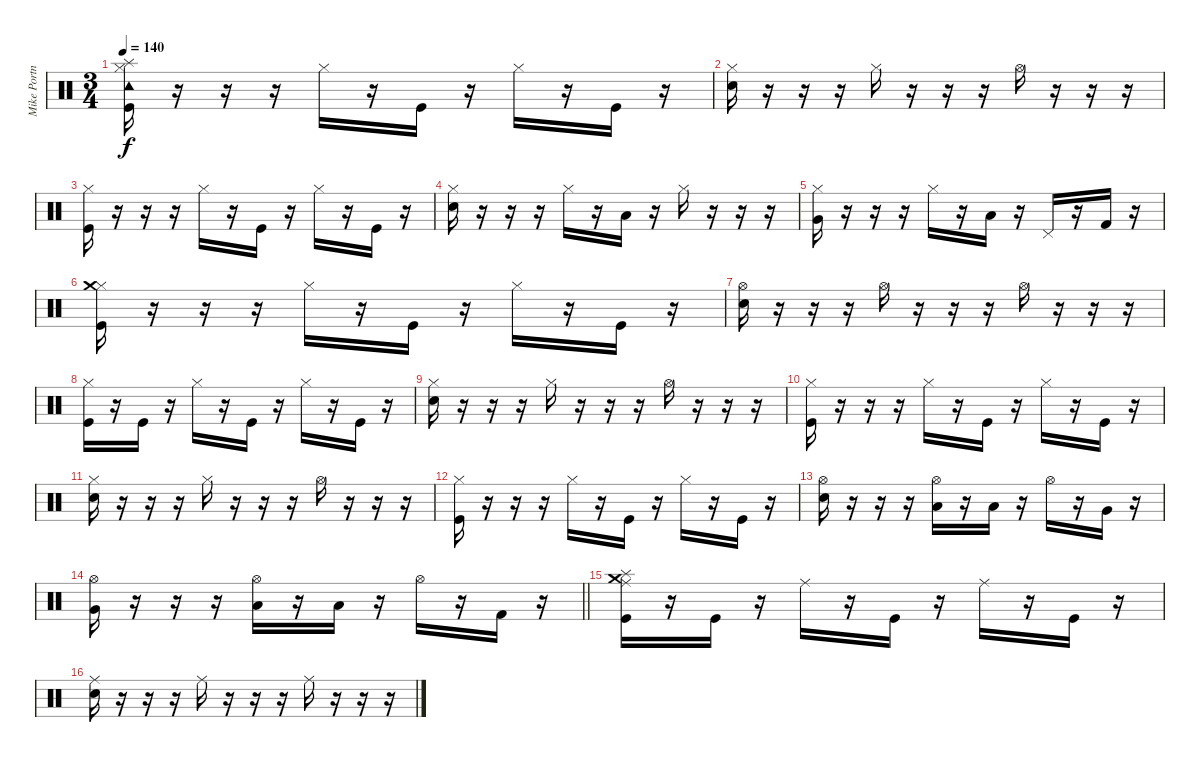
\track ("Mike Portnoy" "Mike Portn") {instrument percussion}
\staff {score}
\articulation defaults
\ts (3 4)
\tempo 140
\clef neutral
\ks c
("Kick (hit)" "Tambourine (hit)" "Splash (hit)" "Hi-Hat (closed)").16{dy f} r.16 r.16 r.16 "Hi-Hat (closed)".16 r.16 "Kick (hit)".16 r.16 "Hi-Hat (closed)".16 r.16 "Kick (hit)".16 r.16 |
("Electric Snare (hit)" "Hi-Hat (closed)").16 r.16 r.16 r.16 "Hi-Hat (closed)".16 r.16 r.16 r.16 "Hi-Hat (open)".16 r.16 r.16 r.16 |
("Kick (hit)" "Hi-Hat (closed)").16 r.16 r.16 r.16 "Hi-Hat (closed)".16 r.16 "Kick (hit)".16 r.16 "Hi-Hat (closed)".16 r.16 "Kick (hit)".16 r.16 |
("Electric Snare (hit)" "Hi-Hat (closed)").16 r.16 r.16 r.16 "Hi-Hat (closed)".16 r.16 "Low Tom (hit)".16 r.16 "Hi-Hat (closed)".16 r.16 r.16 r.16 |
("Very Low Tom (hit)" "Hi-Hat (closed)").16 r.16 r.16 r.16 "Hi-Hat (closed)".16 r.16 "Low Floor Tom (hit)".16 r.16 "Pedal Hi-Hat (hit)".16 r.16 "Kick (hit) 2".16 r.16 |
("Kick (hit)" "Hi-Hat (closed)" "Crash medium (hit)").16 r.16 r.16 r.16 "Hi-Hat (closed)".16 r.16 "Kick (hit)".16 r.16 "Hi-Hat (closed)".16 r.16 "Kick (hit)".16 r.16 |
("Electric Snare (hit)" "Hi-Hat (open)").16 r.16 r.16 r.16 "Hi-Hat (open)".16 r.16 r.16 r.16 "Hi-Hat (open)".16 r.16 r.16 r.16 |
("Kick (hit)" "Hi-Hat (closed)").16 r.16 "Kick (hit)".16 r.16 "Hi-Hat (closed)".16 r.16 "Kick (hit)".16 r.16 "Hi-Hat (closed)".16 r.16 "Kick (hit)".16 r.16 |
("Electric Snare (hit)" "Hi-Hat (closed)").16 r.16 r.16 r.16 "Hi-Hat (closed)".16 r.16 r.16 r.16 "Hi-Hat (open)".16 r.16 r.16 r.16 |
("Kick (hit)" "Hi-Hat (closed)").16 r.16 r.16 r.16 "Hi-Hat (closed)".16 r.16 "Kick (hit)".16 r.16 "Hi-Hat (closed)".16 r.16 "Kick (hit)".16 r.16 |
("Electric Snare (hit)" "Hi-Hat (closed)").16 r.16 r.16 r.16 "Hi-Hat (closed)".16 r.16 r.16 r.16 "Hi-Hat (open)".16 r.16 r.16 r.16 |
("Kick (hit)" "Hi-Hat (closed)").16 r.16 r.16 r.16 "Hi-Hat (closed)".16 r.16 "Kick (hit)".16 r.16 "Hi-Hat (closed)".16 r.16 "Kick (hit)".16 r.16 |
("Electric Snare (hit)" "Hi-Hat (open)").16 r.16 r.16 r.16 ("Low Tom (hit)" "Hi-Hat (open)").16 r.16 "Low Tom (hit)".16 r.16 "Hi-Hat (open)".16 r.16 "Very Low Tom (hit)".16 r.16 |
\barLineRight lightlight
("Very Low Tom (hit)" "Hi-Hat (open)").16 r.16 r.16 r.16 ("Low Floor Tom (hit)" "Hi-Hat (open)").16 r.16 "Low Floor Tom (hit)".16 r.16 "Hi-Hat (open)".16 r.16 "Kick (hit) 2".16 r.16 |
("Kick (hit)" "Crash medium (hit)" "Splash (hit)" "Ride (middle)").16 r.16 "Kick (hit)".16 r.16 "Ride (middle)".16 r.16 "Kick (hit)".16 r.16 "Ride (middle)".16 r.16 "Kick (hit)".16 r.16 |
("Electric Snare (hit)" "Ride (middle)").16 r.16 r.16 r.16 "Ride (middle)".16 r.16 r.16 r.16 "Ride (middle)".16 r.16 r.16 r.16
